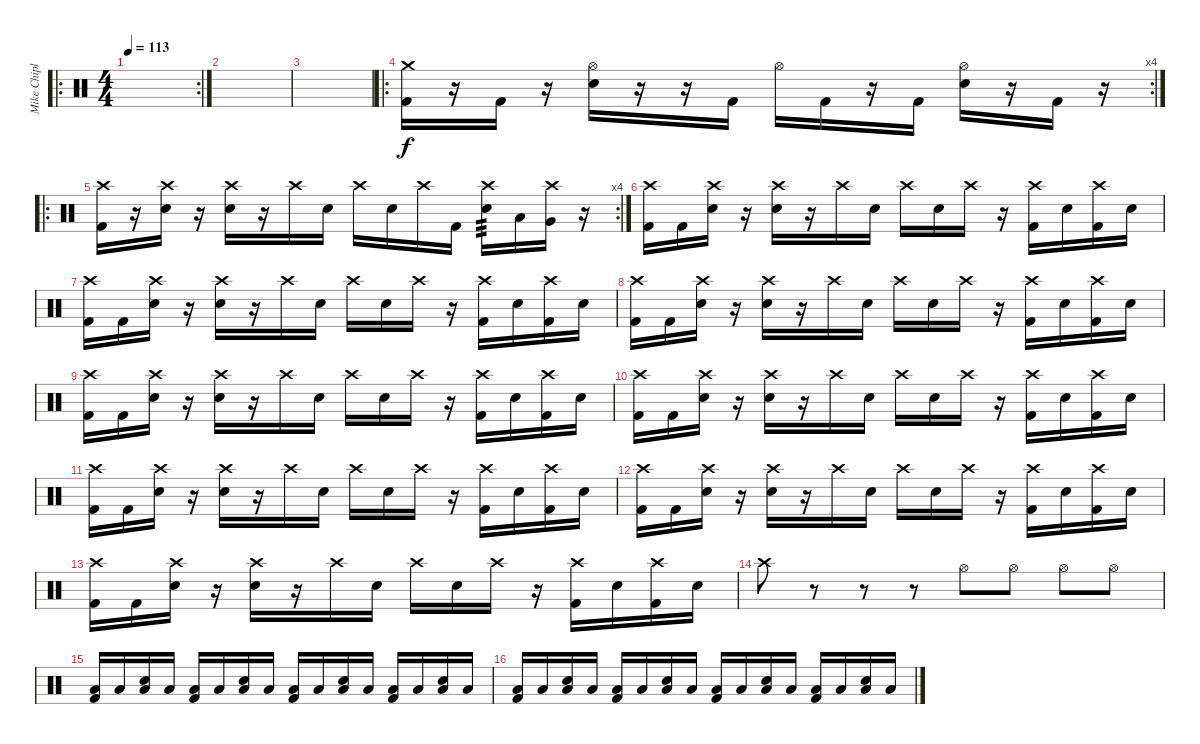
\track ("Mike Chiplin" "Mike Chipl") {instrument percussion}
\staff {score}
\articulation defaults
\ro
\rc 2
\ts (4 4)
\tempo 113
\clef neutral
\ks c
|
|
|
\ro
\rc 4
("Crash medium (hit)" "Kick (hit) 2").16 r.16 "Kick (hit) 2".16 r.16 ("Hi-Hat (open)" "Snare (hit) 2").16 r.16 r.16 "Kick (hit) 2".16 "Hi-Hat (open)".16 "Kick (hit) 2".16 r.16 "Kick (hit) 2".16 ("Hi-Hat (open)" "Snare (hit) 2").16 r.16 "Kick (hit) 2".16 r.16 |
\ro
\rc 4
("Crash high (hit)" "Kick (hit) 2").16 r.16 ("Crash high (hit)" "Snare (hit) 2").16 r.16 ("Crash high (hit)" "Snare (hit) 2").16 r.16 "Crash high (hit)".16 "Snare (hit) 2".16 "Crash high (hit)".16 "Snare (hit) 2".16 "Crash high (hit)".16 "Kick (hit) 2".16 ("Crash high (hit)" "Snare (hit) 2").16{tp 3} "Low Tom (hit)".16 ("Crash high (hit)" "Very Low Tom (hit)").16 r.16 |
("Crash high (hit)" "Kick (hit) 2").16 "Kick (hit) 2".16 ("Crash high (hit)" "Snare (hit) 2").16 r.16 ("Crash high (hit)" "Snare (hit) 2").16 r.16 "Crash high (hit)".16 "Snare (hit) 2".16 "Crash high (hit)".16 "Snare (hit) 2".16 "Crash high (hit)".16 r.16 ("Crash high (hit)" "Kick (hit) 2").16 "Snare (hit) 2".16 ("Crash high (hit)" "Kick (hit) 2").16 "Snare (hit) 2".16 |
("Crash high (hit)" "Kick (hit) 2").16 "Kick (hit) 2".16 ("Crash high (hit)" "Snare (hit) 2").16 r.16 ("Crash high (hit)" "Snare (hit) 2").16 r.16 "Crash high (hit)".16 "Snare (hit) 2".16 "Crash high (hit)".16 "Snare (hit) 2".16 "Crash high (hit)".16 r.16 ("Crash high (hit)" "Kick (hit) 2").16 "Snare (hit) 2".16 ("Crash high (hit)" "Kick (hit) 2").16 "Snare (hit) 2".16 |
("Crash high (hit)" "Kick (hit) 2").16 "Kick (hit) 2".16 ("Crash high (hit)" "Snare (hit) 2").16 r.16 ("Crash high (hit)" "Snare (hit) 2").16 r.16 "Crash high (hit)".16 "Snare (hit) 2".16 "Crash high (hit)".16 "Snare (hit) 2".16 "Crash high (hit)".16 r.16 ("Crash high (hit)" "Kick (hit) 2").16 "Snare (hit) 2".16 ("Crash high (hit)" "Kick (hit) 2").16 "Snare (hit) 2".16 |
("Crash high (hit)" "Kick (hit) 2").16 "Kick (hit) 2".16 ("Crash high (hit)" "Snare (hit) 2").16 r.16 ("Crash high (hit)" "Snare (hit) 2").16 r.16 "Crash high (hit)".16 "Snare (hit) 2".16 "Crash high (hit)".16 "Snare (hit) 2".16 "Crash high (hit)".16 r.16 ("Crash high (hit)" "Kick (hit) 2").16 "Snare (hit) 2".16 ("Crash high (hit)" "Kick (hit) 2").16 "Snare (hit) 2".16 |
("Crash high (hit)" "Kick (hit) 2").16 "Kick (hit) 2".16 ("Crash high (hit)" "Snare (hit) 2").16 r.16 ("Crash high (hit)" "Snare (hit) 2").16 r.16 "Crash high (hit)".16 "Snare (hit) 2".16 "Crash high (hit)".16 "Snare (hit) 2".16 "Crash high (hit)".16 r.16 ("Crash high (hit)" "Kick (hit) 2").16 "Snare (hit) 2".16 ("Crash high (hit)" "Kick (hit) 2").16 "Snare (hit) 2".16 |
("Crash high (hit)" "Kick (hit) 2").16 "Kick (hit) 2".16 ("Crash high (hit)" "Snare (hit) 2").16 r.16 ("Crash high (hit)" "Snare (hit) 2").16 r.16 "Crash high (hit)".16 "Snare (hit) 2".16 "Crash high (hit)".16 "Snare (hit) 2".16 "Crash high (hit)".16 r.16 ("Crash high (hit)" "Kick (hit) 2").16 "Snare (hit) 2".16 ("Crash high (hit)" "Kick (hit) 2").16 "Snare (hit) 2".16 |
("Crash high (hit)" "Kick (hit) 2").16 "Kick (hit) 2".16 ("Crash high (hit)" "Snare (hit) 2").16 r.16 ("Crash high (hit)" "Snare (hit) 2").16 r.16 "Crash high (hit)".16 "Snare (hit) 2".16 "Crash high (hit)".16 "Snare (hit) 2".16 "Crash high (hit)".16 r.16 ("Crash high (hit)" "Kick (hit) 2").16 "Snare (hit) 2".16 ("Crash high (hit)" "Kick (hit) 2").16 "Snare (hit) 2".16 |
("Crash high (hit)" "Kick (hit) 2").16 "Kick (hit) 2".16 ("Crash high (hit)" "Snare (hit) 2").16 r.16 ("Crash high (hit)" "Snare (hit) 2").16 r.16 "Crash high (hit)".16 "Snare (hit) 2".16 "Crash high (hit)".16 "Snare (hit) 2".16 "Crash high (hit)".16 r.16 ("Crash high (hit)" "Kick (hit) 2").16 "Snare (hit) 2".16 ("Crash high (hit)" "Kick (hit) 2").16 "Snare (hit) 2".16 |
"Crash high (hit)".8 r.8 r.8 r.8 "Hi-Hat (open)".8 "Hi-Hat (open)".8 "Hi-Hat (open)".8 "Hi-Hat (open)".8 |
("Low Floor Tom (hit)" "Kick (hit) 2").16 "Low Floor Tom (hit)".16 ("Low Floor Tom (hit)" "Snare (hit) 2").16 "Low Floor Tom (hit)".16 ("Low Floor Tom (hit)" "Kick (hit) 2").16 "Low Floor Tom (hit)".16 ("Low Floor Tom (hit)" "Snare (hit) 2").16 "Low Floor Tom (hit)".16 ("Low Floor Tom (hit)" "Kick (hit) 2").16 "Low Floor Tom (hit)".16 ("Low Floor Tom (hit)" "Snare (hit) 2").16 "Low Floor Tom (hit)".16 ("Low Floor Tom (hit)" "Kick (hit) 2").16 "Low Floor Tom (hit)".16 ("Low Floor Tom (hit)" "Snare (hit) 2").16 "Low Floor Tom (hit)".16 |
("Low Floor Tom (hit)" "Kick (hit) 2").16 "Low Floor Tom (hit)".16 ("Low Floor Tom (hit)" "Snare (hit) 2").16 "Low Floor Tom (hit)".16 ("Low Floor Tom (hit)" "Kick (hit) 2").16 "Low Floor Tom (hit)".16 ("Low Floor Tom (hit)" "Snare (hit) 2").16 "Low Floor Tom (hit)".16 ("Low Floor Tom (hit)" "Kick (hit) 2").16 "Low Floor Tom (hit)".16 ("Low Floor Tom (hit)" "Snare (hit) 2").16 "Low Floor Tom (hit)".16 ("Low Floor Tom (hit)" "Kick (hit) 2").16 "Low Floor Tom (hit)".16 ("Low Floor Tom (hit)" "Snare (hit) 2").16 "Low Floor Tom (hit)".16
